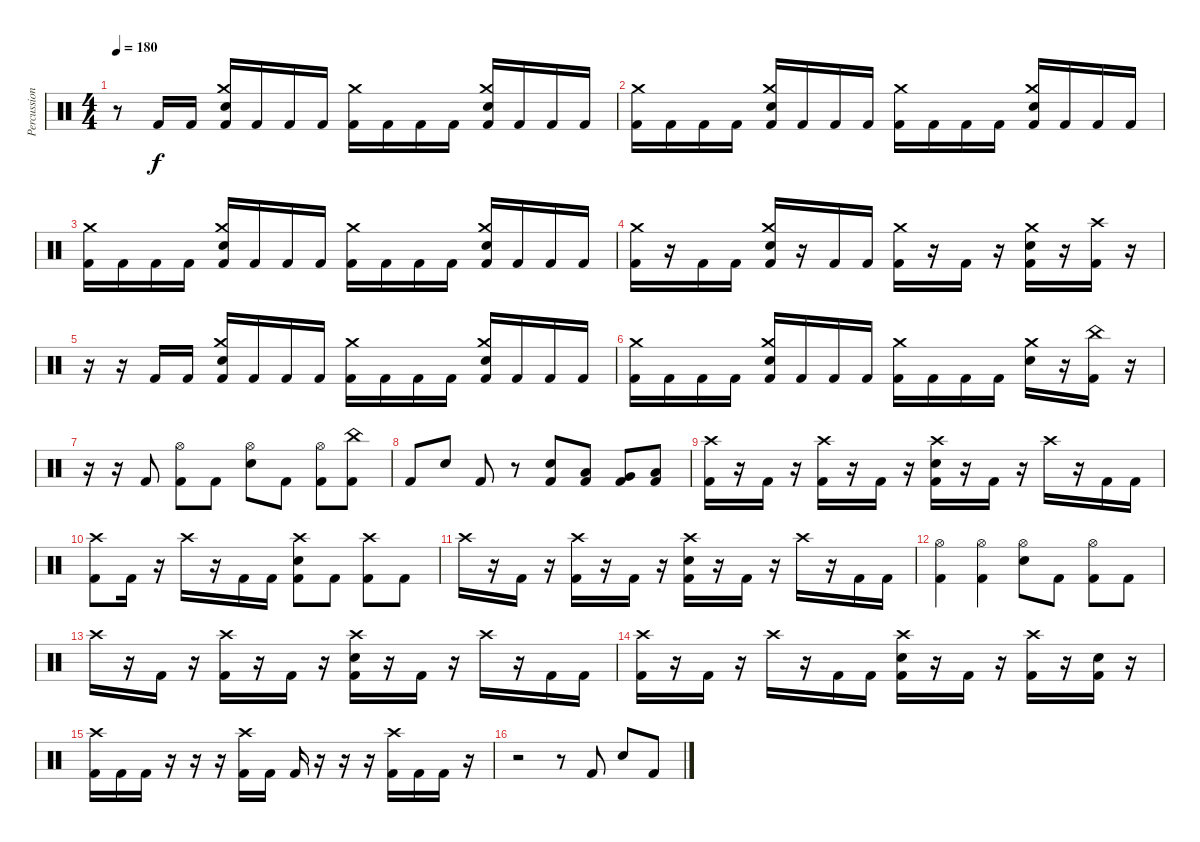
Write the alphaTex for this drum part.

\track ("Percussion" "Percussion") {instrument percussion}
\staff {score}
\articulation defaults
\ts (4 4)
\tempo 180
\clef neutral
\ks c
r.8{dy f} "Kick (hit) 2".16 "Kick (hit) 2".16 ("Crash medium (hit)" "Electric Snare (hit)" "Kick (hit) 2").16 "Kick (hit) 2".16 "Kick (hit) 2".16 "Kick (hit) 2".16 ("Crash medium (hit)" "Kick (hit) 2").16 "Kick (hit) 2".16 "Kick (hit) 2".16 "Kick (hit) 2".16 ("Crash medium (hit)" "Electric Snare (hit)" "Kick (hit) 2").16 "Kick (hit) 2".16 "Kick (hit) 2".16 "Kick (hit) 2".16 |
("Crash medium (hit)" "Kick (hit) 2").16 "Kick (hit) 2".16 "Kick (hit) 2".16 "Kick (hit) 2".16 ("Crash medium (hit)" "Electric Snare (hit)" "Kick (hit) 2").16 "Kick (hit) 2".16 "Kick (hit) 2".16 "Kick (hit) 2".16 ("Crash medium (hit)" "Kick (hit) 2").16 "Kick (hit) 2".16 "Kick (hit) 2".16 "Kick (hit) 2".16 ("Crash medium (hit)" "Electric Snare (hit)" "Kick (hit) 2").16 "Kick (hit) 2".16 "Kick (hit) 2".16 "Kick (hit) 2".16 |
("Crash medium (hit)" "Kick (hit) 2").16 "Kick (hit) 2".16 "Kick (hit) 2".16 "Kick (hit) 2".16 ("Crash medium (hit)" "Electric Snare (hit)" "Kick (hit) 2").16 "Kick (hit) 2".16 "Kick (hit) 2".16 "Kick (hit) 2".16 ("Crash medium (hit)" "Kick (hit) 2").16 "Kick (hit) 2".16 "Kick (hit) 2".16 "Kick (hit) 2".16 ("Crash medium (hit)" "Electric Snare (hit)" "Kick (hit) 2").16 "Kick (hit) 2".16 "Kick (hit) 2".16 "Kick (hit) 2".16 |
("Crash medium (hit)" "Kick (hit) 2").16 r.16 "Kick (hit) 2".16 "Kick (hit) 2".16 ("Crash medium (hit)" "Electric Snare (hit)" "Kick (hit) 2").16 r.16 "Kick (hit) 2".16 "Kick (hit) 2".16 ("Crash medium (hit)" "Kick (hit) 2").16 r.16 "Kick (hit) 2".16 r.16 ("Crash medium (hit)" "Electric Snare (hit)" "Kick (hit) 2").16 r.16 ("Crash high (hit)" "Kick (hit) 2").16 r.16 |
r.16 r.16 "Kick (hit) 2".16 "Kick (hit) 2".16 ("Crash medium (hit)" "Electric Snare (hit)" "Kick (hit) 2").16 "Kick (hit) 2".16 "Kick (hit) 2".16 "Kick (hit) 2".16 ("Crash medium (hit)" "Kick (hit) 2").16 "Kick (hit) 2".16 "Kick (hit) 2".16 "Kick (hit) 2".16 ("Crash medium (hit)" "Electric Snare (hit)" "Kick (hit) 2").16 "Kick (hit) 2".16 "Kick (hit) 2".16 "Kick (hit) 2".16 |
("Crash medium (hit)" "Kick (hit) 2").16 "Kick (hit) 2".16 "Kick (hit) 2".16 "Kick (hit) 2".16 ("Crash medium (hit)" "Electric Snare (hit)" "Kick (hit) 2").16 "Kick (hit) 2".16 "Kick (hit) 2".16 "Kick (hit) 2".16 ("Crash medium (hit)" "Kick (hit) 2").16 "Kick (hit) 2".16 "Kick (hit) 2".16 "Kick (hit) 2".16 ("Crash medium (hit)" "Electric Snare (hit)").16 r.16 ("China (hit)" "Kick (hit) 2").16 r.16 |
r.16 r.16 "Kick (hit) 2".8 ("Hi-Hat (open)" "Kick (hit) 2").8 "Kick (hit) 2".8 ("Hi-Hat (open)" "Electric Snare (hit)").8 "Kick (hit) 2".8 ("Hi-Hat (open)" "Kick (hit) 2").8 ("China (hit)" "Kick (hit) 2").8 |
"Kick (hit) 2".8 "Electric Snare (hit)".8 "Kick (hit) 2".8 r.8 ("Electric Snare (hit)" "Kick (hit) 2").8 ("Low Tom (hit)" "Kick (hit) 2").8 ("Very Low Tom (hit)" "Kick (hit) 2").8 ("Low Floor Tom (hit)" "Kick (hit) 2").8 |
("Crash high (hit)" "Kick (hit) 2").16 r.16 "Kick (hit) 2".16 r.16 ("Crash high (hit)" "Kick (hit) 2").16 r.16 "Kick (hit) 2".16 r.16 ("Crash high (hit)" "Electric Snare (hit)" "Kick (hit) 2").16 r.16 "Kick (hit) 2".16 r.16 "Crash high (hit)".16 r.16 "Kick (hit) 2".16 "Kick (hit) 2".16 |
("Crash high (hit)" "Kick (hit) 2").8 "Kick (hit) 2".16 r.16 "Crash high (hit)".16 r.16 "Kick (hit) 2".16 "Kick (hit) 2".16 ("Crash high (hit)" "Electric Snare (hit)" "Kick (hit) 2").8 "Kick (hit) 2".8 ("Crash high (hit)" "Kick (hit) 2").8 "Kick (hit) 2".8 |
"Crash high (hit)".16 r.16 "Kick (hit) 2".16 r.16 ("Crash high (hit)" "Kick (hit) 2").16 r.16 "Kick (hit) 2".16 r.16 ("Crash high (hit)" "Electric Snare (hit)" "Kick (hit) 2").16 r.16 "Kick (hit) 2".16 r.16 "Crash high (hit)".16 r.16 "Kick (hit) 2".16 "Kick (hit) 2".16 |
("Hi-Hat (open)" "Kick (hit) 2").4 ("Hi-Hat (open)" "Kick (hit) 2").4 ("Hi-Hat (open)" "Electric Snare (hit)").8 "Kick (hit) 2".8 ("Hi-Hat (open)" "Kick (hit) 2").8 "Kick (hit) 2".8 |
"Crash high (hit)".16 r.16 "Kick (hit) 2".16 r.16 ("Crash high (hit)" "Kick (hit) 2").16 r.16 "Kick (hit) 2".16 r.16 ("Crash high (hit)" "Electric Snare (hit)" "Kick (hit) 2").16 r.16 "Kick (hit) 2".16 r.16 "Crash high (hit)".16 r.16 "Kick (hit) 2".16 "Kick (hit) 2".16 |
("Crash high (hit)" "Kick (hit) 2").16 r.16 "Kick (hit) 2".16 r.16 "Crash high (hit)".16 r.16 "Kick (hit) 2".16 "Kick (hit) 2".16 ("Crash high (hit)" "Electric Snare (hit)" "Kick (hit) 2").16 r.16 "Kick (hit) 2".16 r.16 ("Crash high (hit)" "Kick (hit) 2").16 r.16 ("Electric Snare (hit)" "Kick (hit) 2").16 r.16 |
("Crash high (hit)" "Kick (hit) 2").16 "Kick (hit) 2".16 "Kick (hit) 2".16 r.16 r.16 r.16 ("Crash high (hit)" "Kick (hit) 2").16 "Kick (hit) 2".16 "Kick (hit) 2".16 r.16 r.16 r.16 ("Crash high (hit)" "Kick (hit) 2").16 "Kick (hit) 2".16 "Kick (hit) 2".16 r.16 |
r.2 r.8 "Kick (hit) 2".8 "Electric Snare (hit)".8 "Kick (hit) 2".8
